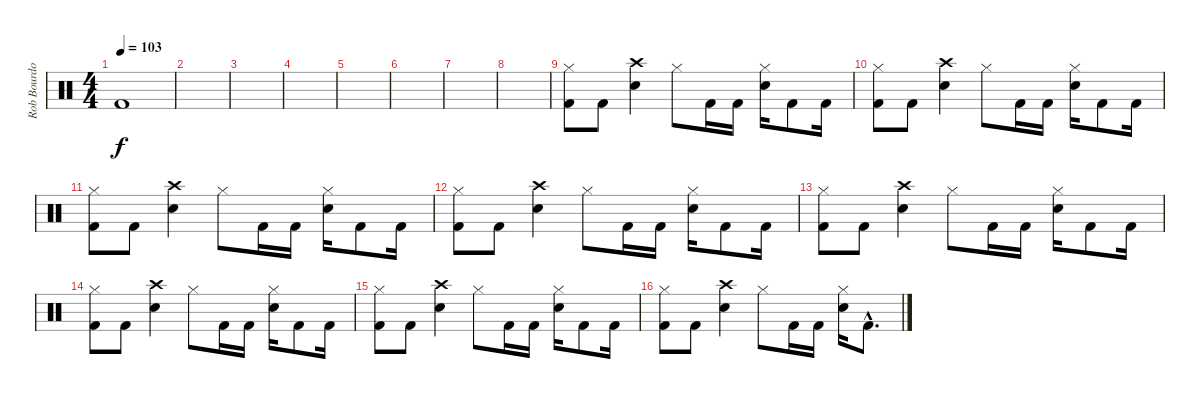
\track ("Rob Bourdon" "Rob Bourdo") {instrument percussion}
\staff {score}
\articulation defaults
\ts (4 4)
\tempo 103
\clef neutral
\ks c "Kick (hit) 2".1{dy f}
|
|
|
|
|
|
|
|
("Hi-Hat (closed)" "Kick (hit) 2").8 "Kick (hit) 2".8 ("Crash high (hit)" "Electric Snare (hit)").4 "Hi-Hat (closed)".8 "Kick (hit) 2".16 "Kick (hit) 2".16 ("Hi-Hat (closed)" "Electric Snare (hit)").16 "Kick (hit) 2".8 "Kick (hit) 2".16 |
("Hi-Hat (closed)" "Kick (hit) 2").8 "Kick (hit) 2".8 ("Crash high (hit)" "Electric Snare (hit)").4 "Hi-Hat (closed)".8 "Kick (hit) 2".16 "Kick (hit) 2".16 ("Hi-Hat (closed)" "Electric Snare (hit)").16 "Kick (hit) 2".8 "Kick (hit) 2".16 |
("Hi-Hat (closed)" "Kick (hit) 2").8 "Kick (hit) 2".8 ("Crash high (hit)" "Electric Snare (hit)").4 "Hi-Hat (closed)".8 "Kick (hit) 2".16 "Kick (hit) 2".16 ("Hi-Hat (closed)" "Electric Snare (hit)").16 "Kick (hit) 2".8 "Kick (hit) 2".16 |
("Hi-Hat (closed)" "Kick (hit) 2").8 "Kick (hit) 2".8 ("Crash high (hit)" "Electric Snare (hit)").4 "Hi-Hat (closed)".8 "Kick (hit) 2".16 "Kick (hit) 2".16 ("Hi-Hat (closed)" "Electric Snare (hit)").16 "Kick (hit) 2".8 "Kick (hit) 2".16 |
("Hi-Hat (closed)" "Kick (hit) 2").8 "Kick (hit) 2".8 ("Crash high (hit)" "Electric Snare (hit)").4 "Hi-Hat (closed)".8 "Kick (hit) 2".16 "Kick (hit) 2".16 ("Hi-Hat (closed)" "Electric Snare (hit)").16 "Kick (hit) 2".8 "Kick (hit) 2".16 |
("Hi-Hat (closed)" "Kick (hit) 2").8 "Kick (hit) 2".8 ("Crash high (hit)" "Electric Snare (hit)").4 "Hi-Hat (closed)".8 "Kick (hit) 2".16 "Kick (hit) 2".16 ("Hi-Hat (closed)" "Electric Snare (hit)").16 "Kick (hit) 2".8 "Kick (hit) 2".16 |
("Hi-Hat (closed)" "Kick (hit) 2").8 "Kick (hit) 2".8 ("Crash high (hit)" "Electric Snare (hit)").4 "Hi-Hat (closed)".8 "Kick (hit) 2".16 "Kick (hit) 2".16 ("Hi-Hat (closed)" "Electric Snare (hit)").16 "Kick (hit) 2".8 "Kick (hit) 2".16 |
("Hi-Hat (closed)" "Kick (hit) 2").8 "Kick (hit) 2".8 ("Crash high (hit)" "Electric Snare (hit)").4 "Hi-Hat (closed)".8 "Kick (hit) 2".16 "Kick (hit) 2".16 ("Hi-Hat (closed)" "Electric Snare (hit)").16 "Kick (hit) 2"{hac}.8{d}
